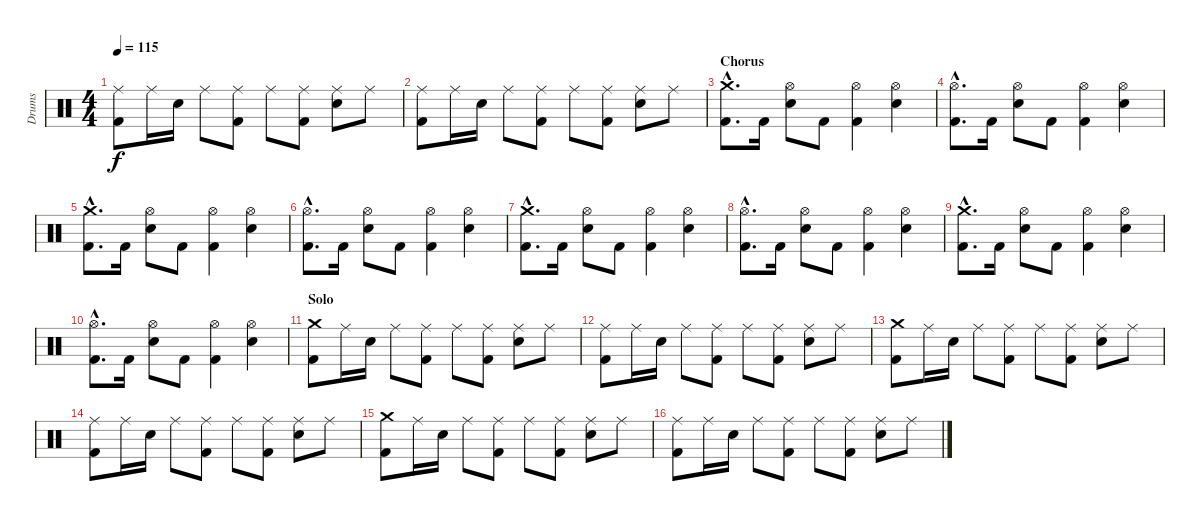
\track ("Drums" "Drums") {instrument percussion}
\staff {score}
\articulation defaults
\ts (4 4)
\tempo 115
\clef neutral
\ks c
("Ride (middle)" "Kick (hit) 2").8{dy f} "Ride (middle)".16 "Electric Snare (hit)".16 "Ride (middle)".8 ("Ride (middle)" "Kick (hit) 2").8 "Ride (middle)".8 ("Ride (middle)" "Kick (hit) 2").8 ("Ride (middle)" "Electric Snare (hit)").8 "Ride (middle)".8 |
("Ride (middle)" "Kick (hit) 2").8 "Ride (middle)".16 "Electric Snare (hit)".16 "Ride (middle)".8 ("Ride (middle)" "Kick (hit) 2").8 "Ride (middle)".8 ("Ride (middle)" "Kick (hit) 2").8 ("Ride (middle)" "Electric Snare (hit)").8 "Ride (middle)".8 |
\section ("" "Chorus")
("Crash medium (hit)"{hac} "Kick (hit) 2"{hac}).8{d} "Kick (hit) 2".16 ("Hi-Hat (open)" "Electric Snare (hit)").8 "Kick (hit) 2".8 ("Hi-Hat (open)" "Kick (hit) 2").4 ("Hi-Hat (open)" "Electric Snare (hit)").4 |
("Hi-Hat (open)"{hac} "Kick (hit) 2"{hac}).8{d} "Kick (hit) 2".16 ("Hi-Hat (open)" "Electric Snare (hit)").8 "Kick (hit) 2".8 ("Hi-Hat (open)" "Kick (hit) 2").4 ("Hi-Hat (open)" "Electric Snare (hit)").4 |
("Crash medium (hit)"{hac} "Kick (hit) 2"{hac}).8{d} "Kick (hit) 2".16 ("Hi-Hat (open)" "Electric Snare (hit)").8 "Kick (hit) 2".8 ("Hi-Hat (open)" "Kick (hit) 2").4 ("Hi-Hat (open)" "Electric Snare (hit)").4 |
("Hi-Hat (open)"{hac} "Kick (hit) 2"{hac}).8{d} "Kick (hit) 2".16 ("Hi-Hat (open)" "Electric Snare (hit)").8 "Kick (hit) 2".8 ("Hi-Hat (open)" "Kick (hit) 2").4 ("Hi-Hat (open)" "Electric Snare (hit)").4 |
("Crash medium (hit)"{hac} "Kick (hit) 2"{hac}).8{d} "Kick (hit) 2".16 ("Hi-Hat (open)" "Electric Snare (hit)").8 "Kick (hit) 2".8 ("Hi-Hat (open)" "Kick (hit) 2").4 ("Hi-Hat (open)" "Electric Snare (hit)").4 |
("Hi-Hat (open)"{hac} "Kick (hit) 2"{hac}).8{d} "Kick (hit) 2".16 ("Hi-Hat (open)" "Electric Snare (hit)").8 "Kick (hit) 2".8 ("Hi-Hat (open)" "Kick (hit) 2").4 ("Hi-Hat (open)" "Electric Snare (hit)").4 |
("Crash medium (hit)"{hac} "Kick (hit) 2"{hac}).8{d} "Kick (hit) 2".16 ("Hi-Hat (open)" "Electric Snare (hit)").8 "Kick (hit) 2".8 ("Hi-Hat (open)" "Kick (hit) 2").4 ("Hi-Hat (open)" "Electric Snare (hit)").4 |
("Hi-Hat (open)"{hac} "Kick (hit) 2"{hac}).8{d} "Kick (hit) 2".16 ("Hi-Hat (open)" "Electric Snare (hit)").8 "Kick (hit) 2".8 ("Hi-Hat (open)" "Kick (hit) 2").4 ("Hi-Hat (open)" "Electric Snare (hit)").4 |
\section ("" "Solo")
("Crash medium (hit)" "Kick (hit) 2").8 "Ride (middle)".16 "Electric Snare (hit)".16 "Ride (middle)".8 ("Ride (middle)" "Kick (hit) 2").8 "Ride (middle)".8 ("Ride (middle)" "Kick (hit) 2").8 ("Ride (middle)" "Electric Snare (hit)").8 "Ride (middle)".8 |
("Ride (middle)" "Kick (hit) 2").8 "Ride (middle)".16 "Electric Snare (hit)".16 "Ride (middle)".8 ("Ride (middle)" "Kick (hit) 2").8 "Ride (middle)".8 ("Ride (middle)" "Kick (hit) 2").8 ("Ride (middle)" "Electric Snare (hit)").8 "Ride (middle)".8 |
("Crash medium (hit)" "Kick (hit) 2").8 "Ride (middle)".16 "Electric Snare (hit)".16 "Ride (middle)".8 ("Ride (middle)" "Kick (hit) 2").8 "Ride (middle)".8 ("Ride (middle)" "Kick (hit) 2").8 ("Ride (middle)" "Electric Snare (hit)").8 "Ride (middle)".8 |
("Ride (middle)" "Kick (hit) 2").8 "Ride (middle)".16 "Electric Snare (hit)".16 "Ride (middle)".8 ("Ride (middle)" "Kick (hit) 2").8 "Ride (middle)".8 ("Ride (middle)" "Kick (hit) 2").8 ("Ride (middle)" "Electric Snare (hit)").8 "Ride (middle)".8 |
("Crash medium (hit)" "Kick (hit) 2").8 "Ride (middle)".16 "Electric Snare (hit)".16 "Ride (middle)".8 ("Ride (middle)" "Kick (hit) 2").8 "Ride (middle)".8 ("Ride (middle)" "Kick (hit) 2").8 ("Ride (middle)" "Electric Snare (hit)").8 "Ride (middle)".8 |
("Ride (middle)" "Kick (hit) 2").8 "Ride (middle)".16 "Electric Snare (hit)".16 "Ride (middle)".8 ("Ride (middle)" "Kick (hit) 2").8 "Ride (middle)".8 ("Ride (middle)" "Kick (hit) 2").8 ("Ride (middle)" "Electric Snare (hit)").8 "Ride (middle)".8
